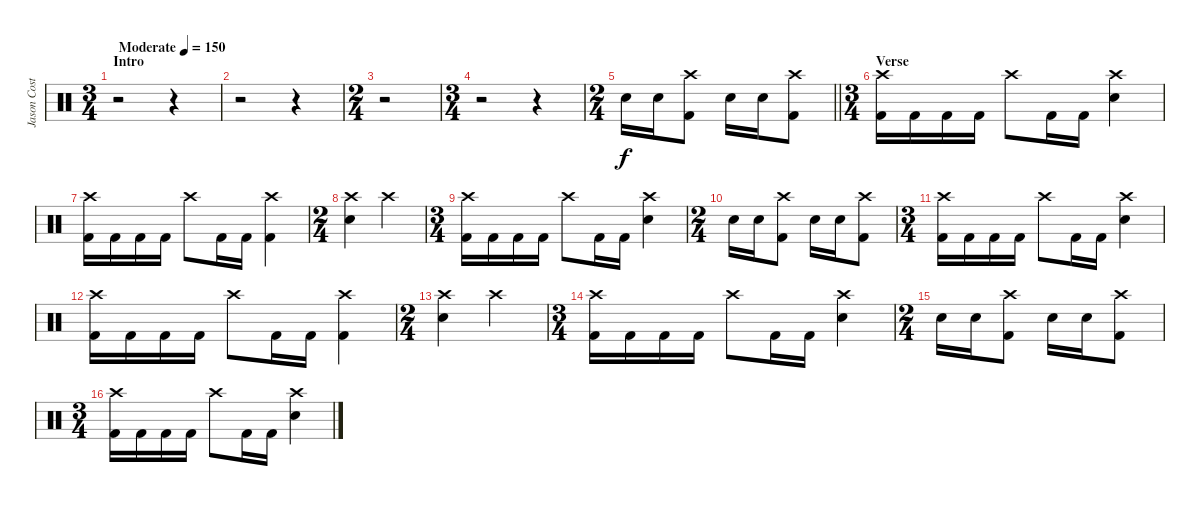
\track ("Jason Costa" "Jason Cost") {instrument percussion}
\staff {score}
\articulation defaults
\ts (3 4)
\section ("" "Intro")
\tempo (150 "Moderate")
\clef neutral
\ks c
r.2{dy f} r.4 |
r.2 r.4 |
\ts (2 4)
r.2 |
\ts (3 4)
r.2 r.4 |
\ts (2 4)
\barLineRight lightlight "Electric Snare (hit)".16 "Electric Snare (hit)".16
("Crash high (hit)" "Kick (hit) 2").8 "Electric Snare (hit)".16 "Electric Snare (hit)".16 ("Crash high (hit)" "Kick (hit) 2").8 |
\ts (3 4)
\section ("" "Verse")
("Crash high (hit)" "Kick (hit) 2").16 "Kick (hit) 2".16 "Kick (hit) 2".16 "Kick (hit) 2".16 "Crash high (hit)".8 "Kick (hit) 2".16 "Kick (hit) 2".16 ("Crash high (hit)" "Electric Snare (hit)").4 |
("Crash high (hit)" "Kick (hit) 2").16 "Kick (hit) 2".16 "Kick (hit) 2".16 "Kick (hit) 2".16 "Crash high (hit)".8 "Kick (hit) 2".16 "Kick (hit) 2".16 ("Crash high (hit)" "Kick (hit) 2").4 |
\ts (2 4)
("Crash high (hit)" "Electric Snare (hit)").4 "Crash high (hit)".4 |
\ts (3 4)
("Crash high (hit)" "Kick (hit) 2").16 "Kick (hit) 2".16 "Kick (hit) 2".16 "Kick (hit) 2".16 "Crash high (hit)".8 "Kick (hit) 2".16 "Kick (hit) 2".16 ("Crash high (hit)" "Electric Snare (hit)").4 |
\ts (2 4)
"Electric Snare (hit)".16 "Electric Snare (hit)".16 ("Crash high (hit)" "Kick (hit) 2").8 "Electric Snare (hit)".16 "Electric Snare (hit)".16 ("Crash high (hit)" "Kick (hit) 2").8 |
\ts (3 4)
("Crash high (hit)" "Kick (hit) 2").16 "Kick (hit) 2".16 "Kick (hit) 2".16 "Kick (hit) 2".16 "Crash high (hit)".8 "Kick (hit) 2".16 "Kick (hit) 2".16 ("Crash high (hit)" "Electric Snare (hit)").4 |
("Crash high (hit)" "Kick (hit) 2").16 "Kick (hit) 2".16 "Kick (hit) 2".16 "Kick (hit) 2".16 "Crash high (hit)".8 "Kick (hit) 2".16 "Kick (hit) 2".16 ("Crash high (hit)" "Kick (hit) 2").4 |
\ts (2 4)
("Crash high (hit)" "Electric Snare (hit)").4 "Crash high (hit)".4 |
\ts (3 4)
("Crash high (hit)" "Kick (hit) 2").16 "Kick (hit) 2".16 "Kick (hit) 2".16 "Kick (hit) 2".16 "Crash high (hit)".8 "Kick (hit) 2".16 "Kick (hit) 2".16 ("Crash high (hit)" "Electric Snare (hit)").4 |
\ts (2 4)
"Electric Snare (hit)".16 "Electric Snare (hit)".16 ("Crash high (hit)" "Kick (hit) 2").8 "Electric Snare (hit)".16 "Electric Snare (hit)".16 ("Crash high (hit)" "Kick (hit) 2").8 |
\ts (3 4)
("Crash high (hit)" "Kick (hit) 2").16 "Kick (hit) 2".16 "Kick (hit) 2".16 "Kick (hit) 2".16 "Crash high (hit)".8 "Kick (hit) 2".16 "Kick (hit) 2".16 ("Crash high (hit)" "Electric Snare (hit)").4
